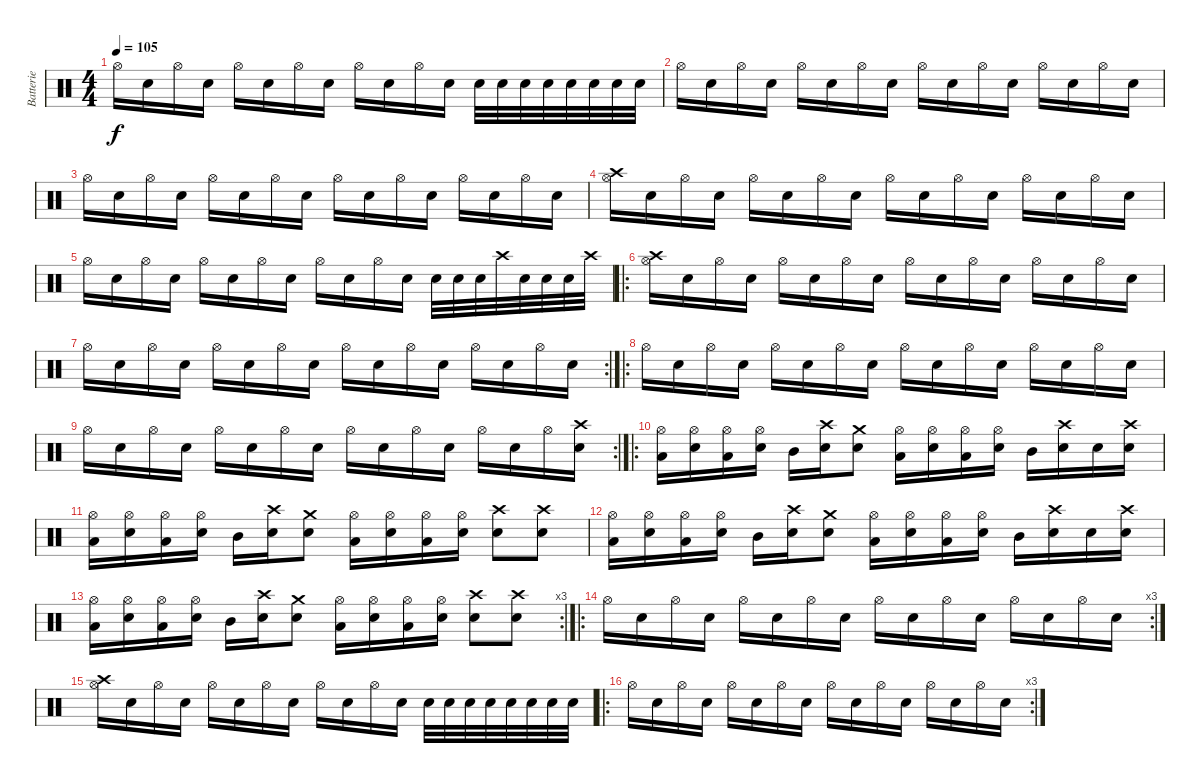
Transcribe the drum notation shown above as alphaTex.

\track ("Batterie" "Batterie") {instrument percussion}
\staff {score}
\articulation defaults
\ts (4 4)
\tempo 105
\clef neutral
\ks c "Hi-Hat (open)".16{dy f} "Snare (hit) 2".16 "Hi-Hat (open)".16 "Snare (hit) 2".16 "Hi-Hat (open)".16 "Snare (hit) 2".16 "Hi-Hat (open)".16 "Snare (hit) 2".16 "Hi-Hat (open)".16 "Snare (hit) 2".16 "Hi-Hat (open)".16 "Snare (hit) 2".16 "Electric Snare (hit)".32 "Electric Snare (hit)".32 "Electric Snare (hit)".32 "Electric Snare (hit)".32 "Electric Snare (hit)".32 "Electric Snare (hit)".32 "Electric Snare (hit)".32 "Electric Snare (hit)".32
|
"Hi-Hat (open)".16 "Snare (hit) 2".16 "Hi-Hat (open)".16 "Snare (hit) 2".16 "Hi-Hat (open)".16 "Snare (hit) 2".16 "Hi-Hat (open)".16 "Snare (hit) 2".16 "Hi-Hat (open)".16 "Snare (hit) 2".16 "Hi-Hat (open)".16 "Snare (hit) 2".16 "Hi-Hat (open)".16 "Snare (hit) 2".16 "Hi-Hat (open)".16 "Snare (hit) 2".16 |
"Hi-Hat (open)".16 "Snare (hit) 2".16 "Hi-Hat (open)".16 "Snare (hit) 2".16 "Hi-Hat (open)".16 "Snare (hit) 2".16 "Hi-Hat (open)".16 "Snare (hit) 2".16 "Hi-Hat (open)".16 "Snare (hit) 2".16 "Hi-Hat (open)".16 "Snare (hit) 2".16 "Hi-Hat (open)".16 "Snare (hit) 2".16 "Hi-Hat (open)".16 "Snare (hit) 2".16 |
("Crash high (hit)" "Hi-Hat (open)").16 "Snare (hit) 2".16 "Hi-Hat (open)".16 "Snare (hit) 2".16 "Hi-Hat (open)".16 "Snare (hit) 2".16 "Hi-Hat (open)".16 "Snare (hit) 2".16 "Hi-Hat (open)".16 "Snare (hit) 2".16 "Hi-Hat (open)".16 "Snare (hit) 2".16 "Hi-Hat (open)".16 "Snare (hit) 2".16 "Hi-Hat (open)".16 "Snare (hit) 2".16 |
"Hi-Hat (open)".16 "Snare (hit) 2".16 "Hi-Hat (open)".16 "Snare (hit) 2".16 "Hi-Hat (open)".16 "Snare (hit) 2".16 "Hi-Hat (open)".16 "Snare (hit) 2".16 "Hi-Hat (open)".16 "Snare (hit) 2".16 "Hi-Hat (open)".16 "Snare (hit) 2".16 "Electric Snare (hit)".32 "Electric Snare (hit)".32 "Electric Snare (hit)".32 "Crash high (hit)".32 "Electric Snare (hit)".32 "Electric Snare (hit)".32 "Electric Snare (hit)".32 "Crash high (hit)".32 |
\ro
("Crash high (hit)" "Hi-Hat (open)").16 "Snare (hit) 2".16 "Hi-Hat (open)".16 "Snare (hit) 2".16 "Hi-Hat (open)".16 "Snare (hit) 2".16 "Hi-Hat (open)".16 "Snare (hit) 2".16 "Hi-Hat (open)".16 "Snare (hit) 2".16 "Hi-Hat (open)".16 "Snare (hit) 2".16 "Hi-Hat (open)".16 "Snare (hit) 2".16 "Hi-Hat (open)".16 "Snare (hit) 2".16 |
\rc 2 "Hi-Hat (open)".16 "Snare (hit) 2".16 "Hi-Hat (open)".16 "Snare (hit) 2".16 "Hi-Hat (open)".16 "Snare (hit) 2".16 "Hi-Hat (open)".16 "Snare (hit) 2".16 "Hi-Hat (open)".16 "Snare (hit) 2".16 "Hi-Hat (open)".16 "Snare (hit) 2".16 "Hi-Hat (open)".16 "Snare (hit) 2".16 "Hi-Hat (open)".16 "Snare (hit) 2".16
|
\ro "Hi-Hat (open)".16 "Snare (hit) 2".16 "Hi-Hat (open)".16 "Snare (hit) 2".16 "Hi-Hat (open)".16 "Snare (hit) 2".16 "Hi-Hat (open)".16 "Snare (hit) 2".16 "Hi-Hat (open)".16 "Snare (hit) 2".16 "Hi-Hat (open)".16 "Snare (hit) 2".16 "Hi-Hat (open)".16 "Snare (hit) 2".16 "Hi-Hat (open)".16 "Snare (hit) 2".16
|
\rc 2 "Hi-Hat (open)".16 "Snare (hit) 2".16 "Hi-Hat (open)".16 "Snare (hit) 2".16 "Hi-Hat (open)".16 "Snare (hit) 2".16 "Hi-Hat (open)".16 "Snare (hit) 2".16 "Hi-Hat (open)".16 "Snare (hit) 2".16 "Hi-Hat (open)".16 "Snare (hit) 2".16 "Hi-Hat (open)".16 "Snare (hit) 2".16 "Hi-Hat (open)".16
("Crash high (hit)" "Snare (hit) 2").16 |
\ro
("Hi-Hat (open)" "Low Tom (hit)").16 ("Hi-Hat (open)" "Snare (hit) 2").16 ("Hi-Hat (open)" "Low Tom (hit)").16 ("Hi-Hat (open)" "Snare (hit) 2").16 "Mid Tom (hit)".16 ("Crash high (hit)" "Snare (hit) 2").16 ("Crash medium (hit)" "Electric Snare (hit)").8 ("Hi-Hat (open)" "Low Tom (hit)").16 ("Hi-Hat (open)" "Snare (hit) 2").16 ("Hi-Hat (open)" "Low Tom (hit)").16 ("Hi-Hat (open)" "Snare (hit) 2").16 "Mid Tom (hit)".16 ("Crash high (hit)" "Snare (hit) 2").16 "Electric Snare (hit)".16 ("Crash high (hit)" "Snare (hit) 2").16 |
("Hi-Hat (open)" "Low Tom (hit)").16 ("Hi-Hat (open)" "Snare (hit) 2").16 ("Hi-Hat (open)" "Low Tom (hit)").16 ("Hi-Hat (open)" "Snare (hit) 2").16 "Mid Tom (hit)".16 ("Crash high (hit)" "Snare (hit) 2").16 ("Crash medium (hit)" "Electric Snare (hit)").8 ("Hi-Hat (open)" "Low Tom (hit)").16 ("Hi-Hat (open)" "Snare (hit) 2").16 ("Hi-Hat (open)" "Low Tom (hit)").16 ("Hi-Hat (open)" "Snare (hit) 2").16 ("Crash high (hit)" "Electric Snare (hit)").8 ("Crash high (hit)" "Electric Snare (hit)").8 |
("Hi-Hat (open)" "Low Tom (hit)").16 ("Hi-Hat (open)" "Snare (hit) 2").16 ("Hi-Hat (open)" "Low Tom (hit)").16 ("Hi-Hat (open)" "Snare (hit) 2").16 "Mid Tom (hit)".16 ("Crash high (hit)" "Snare (hit) 2").16 ("Crash medium (hit)" "Electric Snare (hit)").8 ("Hi-Hat (open)" "Low Tom (hit)").16 ("Hi-Hat (open)" "Snare (hit) 2").16 ("Hi-Hat (open)" "Low Tom (hit)").16 ("Hi-Hat (open)" "Snare (hit) 2").16 "Mid Tom (hit)".16 ("Crash high (hit)" "Snare (hit) 2").16 "Electric Snare (hit)".16 ("Crash high (hit)" "Snare (hit) 2").16 |
\rc 3
("Hi-Hat (open)" "Low Tom (hit)").16 ("Hi-Hat (open)" "Snare (hit) 2").16 ("Hi-Hat (open)" "Low Tom (hit)").16 ("Hi-Hat (open)" "Snare (hit) 2").16 "Mid Tom (hit)".16 ("Crash high (hit)" "Snare (hit) 2").16 ("Crash medium (hit)" "Electric Snare (hit)").8 ("Hi-Hat (open)" "Low Tom (hit)").16 ("Hi-Hat (open)" "Snare (hit) 2").16 ("Hi-Hat (open)" "Low Tom (hit)").16 ("Hi-Hat (open)" "Snare (hit) 2").16 ("Crash high (hit)" "Electric Snare (hit)").8 ("Crash high (hit)" "Electric Snare (hit)").8 |
\ro
\rc 3 "Hi-Hat (open)".16 "Snare (hit) 2".16 "Hi-Hat (open)".16 "Snare (hit) 2".16 "Hi-Hat (open)".16 "Snare (hit) 2".16 "Hi-Hat (open)".16 "Snare (hit) 2".16 "Hi-Hat (open)".16 "Snare (hit) 2".16 "Hi-Hat (open)".16 "Snare (hit) 2".16 "Hi-Hat (open)".16 "Snare (hit) 2".16 "Hi-Hat (open)".16 "Snare (hit) 2".16
|
("Crash high (hit)" "Hi-Hat (open)").16 "Snare (hit) 2".16 "Hi-Hat (open)".16 "Snare (hit) 2".16 "Hi-Hat (open)".16 "Snare (hit) 2".16 "Hi-Hat (open)".16 "Snare (hit) 2".16 "Hi-Hat (open)".16 "Snare (hit) 2".16 "Hi-Hat (open)".16 "Snare (hit) 2".16 "Electric Snare (hit)".32 "Electric Snare (hit)".32 "Electric Snare (hit)".32 "Electric Snare (hit)".32 "Electric Snare (hit)".32 "Electric Snare (hit)".32 "Electric Snare (hit)".32 "Electric Snare (hit)".32 |
\ro
\rc 3 "Hi-Hat (open)".16 "Snare (hit) 2".16 "Hi-Hat (open)".16 "Snare (hit) 2".16 "Hi-Hat (open)".16 "Snare (hit) 2".16 "Hi-Hat (open)".16 "Snare (hit) 2".16 "Hi-Hat (open)".16 "Snare (hit) 2".16 "Hi-Hat (open)".16 "Snare (hit) 2".16 "Hi-Hat (open)".16 "Snare (hit) 2".16 "Hi-Hat (open)".16 "Snare (hit) 2".16
